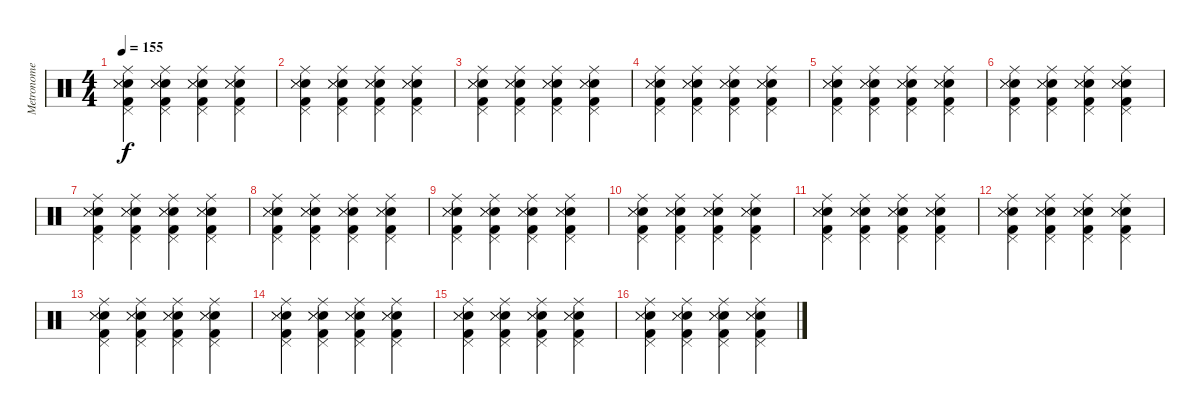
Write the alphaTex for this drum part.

\track ("Metronome" "Metronome") {mute instrument percussion}
\staff {score}
\articulation defaults
\ts (4 4)
\tempo 155
\clef neutral
\ks c
("Ride (middle)" "Pedal Hi-Hat (hit)" "Electric Snare (hit)" "Snare (side stick) 3" "Metronome (hit)" "Kick (hit) 2").4{dy f} ("Ride (middle)" "Pedal Hi-Hat (hit)" "Electric Snare (hit)" "Snare (side stick) 3" "Metronome (hit)" "Kick (hit) 2").4 ("Ride (middle)" "Pedal Hi-Hat (hit)" "Electric Snare (hit)" "Snare (side stick) 3" "Metronome (hit)" "Kick (hit) 2").4 ("Ride (middle)" "Pedal Hi-Hat (hit)" "Electric Snare (hit)" "Snare (side stick) 3" "Metronome (hit)" "Kick (hit) 2").4 |
("Ride (middle)" "Pedal Hi-Hat (hit)" "Electric Snare (hit)" "Snare (side stick) 3" "Metronome (hit)" "Kick (hit) 2").4 ("Ride (middle)" "Pedal Hi-Hat (hit)" "Electric Snare (hit)" "Snare (side stick) 3" "Metronome (hit)" "Kick (hit) 2").4 ("Ride (middle)" "Pedal Hi-Hat (hit)" "Electric Snare (hit)" "Snare (side stick) 3" "Metronome (hit)" "Kick (hit) 2").4 ("Ride (middle)" "Pedal Hi-Hat (hit)" "Electric Snare (hit)" "Snare (side stick) 3" "Metronome (hit)" "Kick (hit) 2").4 |
("Ride (middle)" "Pedal Hi-Hat (hit)" "Electric Snare (hit)" "Snare (side stick) 3" "Metronome (hit)" "Kick (hit) 2").4 ("Ride (middle)" "Pedal Hi-Hat (hit)" "Electric Snare (hit)" "Snare (side stick) 3" "Metronome (hit)" "Kick (hit) 2").4 ("Ride (middle)" "Pedal Hi-Hat (hit)" "Electric Snare (hit)" "Snare (side stick) 3" "Metronome (hit)" "Kick (hit) 2").4 ("Ride (middle)" "Pedal Hi-Hat (hit)" "Electric Snare (hit)" "Snare (side stick) 3" "Metronome (hit)" "Kick (hit) 2").4 |
("Ride (middle)" "Pedal Hi-Hat (hit)" "Electric Snare (hit)" "Snare (side stick) 3" "Metronome (hit)" "Kick (hit) 2").4 ("Ride (middle)" "Pedal Hi-Hat (hit)" "Electric Snare (hit)" "Snare (side stick) 3" "Metronome (hit)" "Kick (hit) 2").4 ("Ride (middle)" "Pedal Hi-Hat (hit)" "Electric Snare (hit)" "Snare (side stick) 3" "Metronome (hit)" "Kick (hit) 2").4 ("Ride (middle)" "Pedal Hi-Hat (hit)" "Electric Snare (hit)" "Snare (side stick) 3" "Metronome (hit)" "Kick (hit) 2").4 |
("Ride (middle)" "Pedal Hi-Hat (hit)" "Electric Snare (hit)" "Snare (side stick) 3" "Metronome (hit)" "Kick (hit) 2").4 ("Ride (middle)" "Pedal Hi-Hat (hit)" "Electric Snare (hit)" "Snare (side stick) 3" "Metronome (hit)" "Kick (hit) 2").4 ("Ride (middle)" "Pedal Hi-Hat (hit)" "Electric Snare (hit)" "Snare (side stick) 3" "Metronome (hit)" "Kick (hit) 2").4 ("Ride (middle)" "Pedal Hi-Hat (hit)" "Electric Snare (hit)" "Snare (side stick) 3" "Metronome (hit)" "Kick (hit) 2").4 |
("Ride (middle)" "Pedal Hi-Hat (hit)" "Electric Snare (hit)" "Snare (side stick) 3" "Metronome (hit)" "Kick (hit) 2").4 ("Ride (middle)" "Pedal Hi-Hat (hit)" "Electric Snare (hit)" "Snare (side stick) 3" "Metronome (hit)" "Kick (hit) 2").4 ("Ride (middle)" "Pedal Hi-Hat (hit)" "Electric Snare (hit)" "Snare (side stick) 3" "Metronome (hit)" "Kick (hit) 2").4 ("Ride (middle)" "Pedal Hi-Hat (hit)" "Electric Snare (hit)" "Snare (side stick) 3" "Metronome (hit)" "Kick (hit) 2").4 |
("Ride (middle)" "Pedal Hi-Hat (hit)" "Electric Snare (hit)" "Snare (side stick) 3" "Metronome (hit)" "Kick (hit) 2").4 ("Ride (middle)" "Pedal Hi-Hat (hit)" "Electric Snare (hit)" "Snare (side stick) 3" "Metronome (hit)" "Kick (hit) 2").4 ("Ride (middle)" "Pedal Hi-Hat (hit)" "Electric Snare (hit)" "Snare (side stick) 3" "Metronome (hit)" "Kick (hit) 2").4 ("Ride (middle)" "Pedal Hi-Hat (hit)" "Electric Snare (hit)" "Snare (side stick) 3" "Metronome (hit)" "Kick (hit) 2").4 |
("Ride (middle)" "Pedal Hi-Hat (hit)" "Electric Snare (hit)" "Snare (side stick) 3" "Metronome (hit)" "Kick (hit) 2").4 ("Ride (middle)" "Pedal Hi-Hat (hit)" "Electric Snare (hit)" "Snare (side stick) 3" "Metronome (hit)" "Kick (hit) 2").4 ("Ride (middle)" "Pedal Hi-Hat (hit)" "Electric Snare (hit)" "Snare (side stick) 3" "Metronome (hit)" "Kick (hit) 2").4 ("Ride (middle)" "Pedal Hi-Hat (hit)" "Electric Snare (hit)" "Snare (side stick) 3" "Metronome (hit)" "Kick (hit) 2").4 |
("Ride (middle)" "Pedal Hi-Hat (hit)" "Electric Snare (hit)" "Snare (side stick) 3" "Metronome (hit)" "Kick (hit) 2").4 ("Ride (middle)" "Pedal Hi-Hat (hit)" "Electric Snare (hit)" "Snare (side stick) 3" "Metronome (hit)" "Kick (hit) 2").4 ("Ride (middle)" "Pedal Hi-Hat (hit)" "Electric Snare (hit)" "Snare (side stick) 3" "Metronome (hit)" "Kick (hit) 2").4 ("Ride (middle)" "Pedal Hi-Hat (hit)" "Electric Snare (hit)" "Snare (side stick) 3" "Metronome (hit)" "Kick (hit) 2").4 |
("Ride (middle)" "Pedal Hi-Hat (hit)" "Electric Snare (hit)" "Snare (side stick) 3" "Metronome (hit)" "Kick (hit) 2").4 ("Ride (middle)" "Pedal Hi-Hat (hit)" "Electric Snare (hit)" "Snare (side stick) 3" "Metronome (hit)" "Kick (hit) 2").4 ("Ride (middle)" "Pedal Hi-Hat (hit)" "Electric Snare (hit)" "Snare (side stick) 3" "Metronome (hit)" "Kick (hit) 2").4 ("Ride (middle)" "Pedal Hi-Hat (hit)" "Electric Snare (hit)" "Snare (side stick) 3" "Metronome (hit)" "Kick (hit) 2").4 |
("Ride (middle)" "Pedal Hi-Hat (hit)" "Electric Snare (hit)" "Snare (side stick) 3" "Metronome (hit)" "Kick (hit) 2").4 ("Ride (middle)" "Pedal Hi-Hat (hit)" "Electric Snare (hit)" "Snare (side stick) 3" "Metronome (hit)" "Kick (hit) 2").4 ("Ride (middle)" "Pedal Hi-Hat (hit)" "Electric Snare (hit)" "Snare (side stick) 3" "Metronome (hit)" "Kick (hit) 2").4 ("Ride (middle)" "Pedal Hi-Hat (hit)" "Electric Snare (hit)" "Snare (side stick) 3" "Metronome (hit)" "Kick (hit) 2").4 |
("Ride (middle)" "Pedal Hi-Hat (hit)" "Electric Snare (hit)" "Snare (side stick) 3" "Metronome (hit)" "Kick (hit) 2").4 ("Ride (middle)" "Pedal Hi-Hat (hit)" "Electric Snare (hit)" "Snare (side stick) 3" "Metronome (hit)" "Kick (hit) 2").4 ("Ride (middle)" "Pedal Hi-Hat (hit)" "Electric Snare (hit)" "Snare (side stick) 3" "Metronome (hit)" "Kick (hit) 2").4 ("Ride (middle)" "Pedal Hi-Hat (hit)" "Electric Snare (hit)" "Snare (side stick) 3" "Metronome (hit)" "Kick (hit) 2").4 |
("Ride (middle)" "Pedal Hi-Hat (hit)" "Electric Snare (hit)" "Snare (side stick) 3" "Metronome (hit)" "Kick (hit) 2").4 ("Ride (middle)" "Pedal Hi-Hat (hit)" "Electric Snare (hit)" "Snare (side stick) 3" "Metronome (hit)" "Kick (hit) 2").4 ("Ride (middle)" "Pedal Hi-Hat (hit)" "Electric Snare (hit)" "Snare (side stick) 3" "Metronome (hit)" "Kick (hit) 2").4 ("Ride (middle)" "Pedal Hi-Hat (hit)" "Electric Snare (hit)" "Snare (side stick) 3" "Metronome (hit)" "Kick (hit) 2").4 |
("Ride (middle)" "Pedal Hi-Hat (hit)" "Electric Snare (hit)" "Snare (side stick) 3" "Metronome (hit)" "Kick (hit) 2").4 ("Ride (middle)" "Pedal Hi-Hat (hit)" "Electric Snare (hit)" "Snare (side stick) 3" "Metronome (hit)" "Kick (hit) 2").4 ("Ride (middle)" "Pedal Hi-Hat (hit)" "Electric Snare (hit)" "Snare (side stick) 3" "Metronome (hit)" "Kick (hit) 2").4 ("Ride (middle)" "Pedal Hi-Hat (hit)" "Electric Snare (hit)" "Snare (side stick) 3" "Metronome (hit)" "Kick (hit) 2").4 |
("Ride (middle)" "Pedal Hi-Hat (hit)" "Electric Snare (hit)" "Snare (side stick) 3" "Metronome (hit)" "Kick (hit) 2").4 ("Ride (middle)" "Pedal Hi-Hat (hit)" "Electric Snare (hit)" "Snare (side stick) 3" "Metronome (hit)" "Kick (hit) 2").4 ("Ride (middle)" "Pedal Hi-Hat (hit)" "Electric Snare (hit)" "Snare (side stick) 3" "Metronome (hit)" "Kick (hit) 2").4 ("Ride (middle)" "Pedal Hi-Hat (hit)" "Electric Snare (hit)" "Snare (side stick) 3" "Metronome (hit)" "Kick (hit) 2").4 |
("Ride (middle)" "Pedal Hi-Hat (hit)" "Electric Snare (hit)" "Snare (side stick) 3" "Metronome (hit)" "Kick (hit) 2").4 ("Ride (middle)" "Pedal Hi-Hat (hit)" "Electric Snare (hit)" "Snare (side stick) 3" "Metronome (hit)" "Kick (hit) 2").4 ("Ride (middle)" "Pedal Hi-Hat (hit)" "Electric Snare (hit)" "Snare (side stick) 3" "Metronome (hit)" "Kick (hit) 2").4 ("Ride (middle)" "Pedal Hi-Hat (hit)" "Electric Snare (hit)" "Snare (side stick) 3" "Metronome (hit)" "Kick (hit) 2").4
